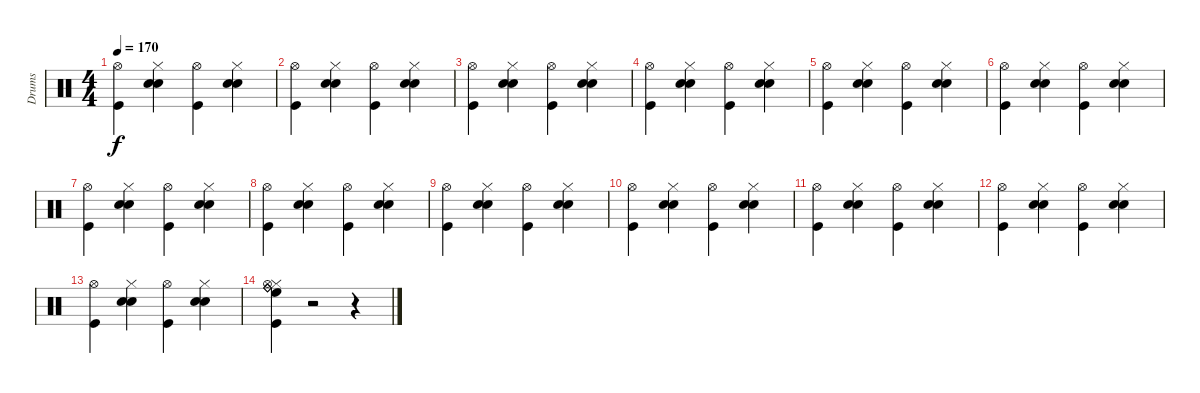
\track ("Drums" "Drums") {instrument percussion}
\staff {score}
\articulation defaults
\ts (4 4)
\tempo 170
\clef neutral
\ks c
("Hi-Hat (open)" "Kick (hit)").4{dy f} ("Hi-Hat (closed)" "Snare (hit) 2" "Electric Snare (hit)").4 ("Hi-Hat (open)" "Kick (hit)").4 ("Hi-Hat (closed)" "Snare (hit) 2" "Electric Snare (hit)").4 |
("Hi-Hat (open)" "Kick (hit)").4 ("Hi-Hat (closed)" "Snare (hit) 2" "Electric Snare (hit)").4 ("Hi-Hat (open)" "Kick (hit)").4 ("Hi-Hat (closed)" "Snare (hit) 2" "Electric Snare (hit)").4 |
("Hi-Hat (open)" "Kick (hit)").4 ("Hi-Hat (closed)" "Snare (hit) 2" "Electric Snare (hit)").4 ("Hi-Hat (open)" "Kick (hit)").4 ("Hi-Hat (closed)" "Snare (hit) 2" "Electric Snare (hit)").4 |
("Hi-Hat (open)" "Kick (hit)").4 ("Hi-Hat (closed)" "Snare (hit) 2" "Electric Snare (hit)").4 ("Hi-Hat (open)" "Kick (hit)").4 ("Hi-Hat (closed)" "Snare (hit) 2" "Electric Snare (hit)").4 |
("Hi-Hat (open)" "Kick (hit)").4 ("Hi-Hat (closed)" "Snare (hit) 2" "Electric Snare (hit)").4 ("Hi-Hat (open)" "Kick (hit)").4 ("Hi-Hat (closed)" "Snare (hit) 2" "Electric Snare (hit)").4 |
("Hi-Hat (open)" "Kick (hit)").4 ("Hi-Hat (closed)" "Snare (hit) 2" "Electric Snare (hit)").4 ("Hi-Hat (open)" "Kick (hit)").4 ("Hi-Hat (closed)" "Snare (hit) 2" "Electric Snare (hit)").4 |
("Hi-Hat (open)" "Kick (hit)").4 ("Hi-Hat (closed)" "Snare (hit) 2" "Electric Snare (hit)").4 ("Hi-Hat (open)" "Kick (hit)").4 ("Hi-Hat (closed)" "Snare (hit) 2" "Electric Snare (hit)").4 |
("Hi-Hat (open)" "Kick (hit)").4 ("Hi-Hat (closed)" "Snare (hit) 2" "Electric Snare (hit)").4 ("Hi-Hat (open)" "Kick (hit)").4 ("Hi-Hat (closed)" "Snare (hit) 2" "Electric Snare (hit)").4 |
("Hi-Hat (open)" "Kick (hit)").4 ("Hi-Hat (closed)" "Snare (hit) 2" "Electric Snare (hit)").4 ("Hi-Hat (open)" "Kick (hit)").4 ("Hi-Hat (closed)" "Snare (hit) 2" "Electric Snare (hit)").4 |
("Hi-Hat (open)" "Kick (hit)").4 ("Hi-Hat (closed)" "Snare (hit) 2" "Electric Snare (hit)").4 ("Hi-Hat (open)" "Kick (hit)").4 ("Hi-Hat (closed)" "Snare (hit) 2" "Electric Snare (hit)").4 |
("Hi-Hat (open)" "Kick (hit)").4 ("Hi-Hat (closed)" "Snare (hit) 2" "Electric Snare (hit)").4 ("Hi-Hat (open)" "Kick (hit)").4 ("Hi-Hat (closed)" "Snare (hit) 2" "Electric Snare (hit)").4 |
("Hi-Hat (open)" "Kick (hit)").4 ("Hi-Hat (closed)" "Snare (hit) 2" "Electric Snare (hit)").4 ("Hi-Hat (open)" "Kick (hit)").4 ("Hi-Hat (closed)" "Snare (hit) 2" "Electric Snare (hit)").4 |
("Hi-Hat (open)" "Kick (hit)").4 ("Hi-Hat (closed)" "Snare (hit) 2" "Electric Snare (hit)").4 ("Hi-Hat (open)" "Kick (hit)").4 ("Hi-Hat (closed)" "Snare (hit) 2" "Electric Snare (hit)").4 |
("Ride (bell)" "High Floor Tom (hit)" "Ride (bell)" "Hi-Hat (closed)" "Hi-Hat (open)" "Kick (hit)").4 r.2 r.4
